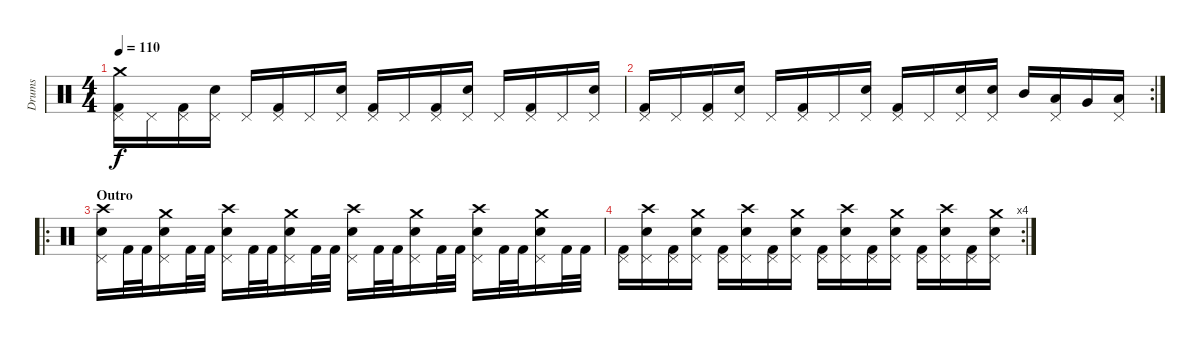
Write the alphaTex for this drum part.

\track ("Drums" "Drums") {instrument percussion}
\staff {score}
\articulation defaults
\ts (4 4)
\tempo 110
\clef neutral
\ks c
("Kick (hit) 2" "Pedal Hi-Hat (hit)" "Crash medium (hit)").16{dy f} "Pedal Hi-Hat (hit)".16 ("Kick (hit) 2" "Pedal Hi-Hat (hit)").16 ("Snare (hit) 2" "Pedal Hi-Hat (hit)").16 "Pedal Hi-Hat (hit)".16 ("Kick (hit) 2" "Pedal Hi-Hat (hit)").16 "Pedal Hi-Hat (hit)".16 ("Snare (hit) 2" "Pedal Hi-Hat (hit)").16 ("Kick (hit) 2" "Pedal Hi-Hat (hit)").16 "Pedal Hi-Hat (hit)".16 ("Kick (hit) 2" "Pedal Hi-Hat (hit)").16 ("Snare (hit) 2" "Pedal Hi-Hat (hit)").16 "Pedal Hi-Hat (hit)".16 ("Kick (hit) 2" "Pedal Hi-Hat (hit)").16 "Pedal Hi-Hat (hit)".16 ("Snare (hit) 2" "Pedal Hi-Hat (hit)").16 |
\rc 2
("Kick (hit) 2" "Pedal Hi-Hat (hit)").16 "Pedal Hi-Hat (hit)".16 ("Kick (hit) 2" "Pedal Hi-Hat (hit)").16 ("Snare (hit) 2" "Pedal Hi-Hat (hit)").16 "Pedal Hi-Hat (hit)".16 ("Kick (hit) 2" "Pedal Hi-Hat (hit)").16 "Pedal Hi-Hat (hit)".16 ("Snare (hit) 2" "Pedal Hi-Hat (hit)").16 ("Kick (hit) 2" "Pedal Hi-Hat (hit)").16 "Pedal Hi-Hat (hit)".16 ("Snare (hit) 2" "Pedal Hi-Hat (hit)").16 ("Snare (hit) 2" "Pedal Hi-Hat (hit)").16 "Mid Tom (hit)".16 ("Low Tom (hit)" "Pedal Hi-Hat (hit)").16 "Very Low Tom (hit)".16 ("Low Floor Tom (hit)" "Pedal Hi-Hat (hit)").16 |
\ro
\section ("" "Outro")
("Snare (hit) 2" "Pedal Hi-Hat (hit)" "Crash high (hit)").16 "Kick (hit) 2".32 "Kick (hit) 2".32 ("Snare (hit) 2" "Pedal Hi-Hat (hit)" "Crash medium (hit)").16 "Kick (hit) 2".32 "Kick (hit) 2".32 ("Snare (hit) 2" "Pedal Hi-Hat (hit)" "Crash high (hit)").16 "Kick (hit) 2".32 "Kick (hit) 2".32 ("Snare (hit) 2" "Pedal Hi-Hat (hit)" "Crash medium (hit)").16 "Kick (hit) 2".32 "Kick (hit) 2".32 ("Snare (hit) 2" "Pedal Hi-Hat (hit)" "Crash high (hit)").16 "Kick (hit) 2".32 "Kick (hit) 2".32 ("Snare (hit) 2" "Pedal Hi-Hat (hit)" "Crash medium (hit)").16 "Kick (hit) 2".32 "Kick (hit) 2".32 ("Snare (hit) 2" "Pedal Hi-Hat (hit)" "Crash high (hit)").16 "Kick (hit) 2".32 "Kick (hit) 2".32 ("Snare (hit) 2" "Pedal Hi-Hat (hit)" "Crash medium (hit)").16 "Kick (hit) 2".32 "Kick (hit) 2".32 |
\rc 4
("Kick (hit) 2" "Pedal Hi-Hat (hit)").16 ("Snare (hit) 2" "Pedal Hi-Hat (hit)" "Crash high (hit)").16 ("Kick (hit) 2" "Pedal Hi-Hat (hit)").16 ("Snare (hit) 2" "Pedal Hi-Hat (hit)" "Crash medium (hit)").16 ("Kick (hit) 2" "Pedal Hi-Hat (hit)").16 ("Snare (hit) 2" "Pedal Hi-Hat (hit)" "Crash high (hit)").16 ("Kick (hit) 2" "Pedal Hi-Hat (hit)").16 ("Snare (hit) 2" "Pedal Hi-Hat (hit)" "Crash medium (hit)").16 ("Kick (hit) 2" "Pedal Hi-Hat (hit)").16 ("Snare (hit) 2" "Pedal Hi-Hat (hit)" "Crash high (hit)").16 ("Kick (hit) 2" "Pedal Hi-Hat (hit)").16 ("Snare (hit) 2" "Pedal Hi-Hat (hit)" "Crash medium (hit)").16 ("Kick (hit) 2" "Pedal Hi-Hat (hit)").16 ("Snare (hit) 2" "Pedal Hi-Hat (hit)" "Crash high (hit)").16 ("Kick (hit) 2" "Pedal Hi-Hat (hit)").16 ("Snare (hit) 2" "Pedal Hi-Hat (hit)" "Crash medium (hit)").16
